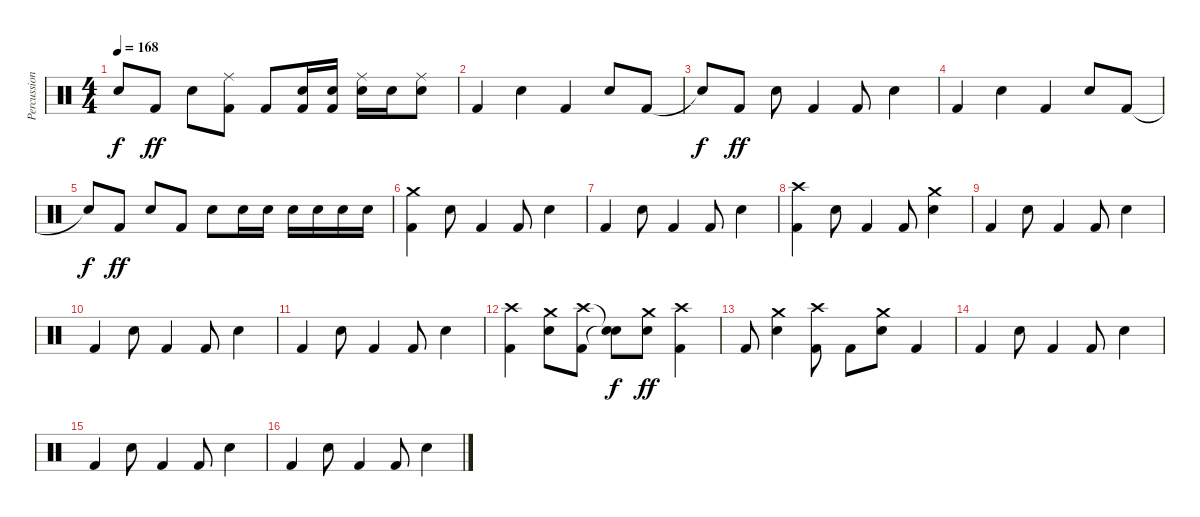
\track ("Percussions" "Percussion") {instrument percussion}
\staff {score}
\articulation defaults
\ts (4 4)
\tempo 168
\clef neutral
\ks c "Snare (hit)"{t}.8{dy f} "Kick (hit) 2".8{dy ff} "Snare (hit) 2".8
("Kick (hit) 2" "Ride (middle)").8 "Kick (hit) 2".8 ("Kick (hit) 2" "Snare (hit) 2").16 ("Kick (hit) 2" "Snare (hit) 2").16 ("Snare (hit) 2" "Ride (middle)").16 "Snare (hit) 2".16 ("Snare (hit) 2" "Ride (middle)").8 |
"Kick (hit) 2".4 "Snare (hit) 2".4 "Kick (hit) 2".4 "Snare (hit) 2".8 "Kick (hit) 2".8 |
"Snare (hit)"{t}.8{dy f} "Kick (hit) 2".8{dy ff} "Snare (hit) 2".8 "Kick (hit) 2".4 "Kick (hit) 2".8 "Snare (hit) 2".4 |
"Kick (hit) 2".4 "Snare (hit) 2".4 "Kick (hit) 2".4 "Snare (hit) 2".8 "Kick (hit) 2".8 |
"Snare (hit)"{t}.8{dy f} "Kick (hit) 2".8{dy ff} "Snare (hit) 2".8 "Kick (hit) 2".8 "Snare (hit) 2".8 "Snare (hit) 2".16 "Snare (hit) 2".16 "Snare (hit) 2".16 "Snare (hit) 2".16 "Snare (hit) 2".16 "Snare (hit) 2".16 |
("Kick (hit) 2" "Crash medium (hit)").4 "Snare (hit) 2".8 "Kick (hit) 2".4 "Kick (hit) 2".8 "Snare (hit) 2".4 |
"Kick (hit) 2".4 "Snare (hit) 2".8 "Kick (hit) 2".4 "Kick (hit) 2".8 "Snare (hit) 2".4 |
("Kick (hit) 2" "Crash high (hit)").4 "Snare (hit) 2".8 "Kick (hit) 2".4 "Kick (hit) 2".8 ("Snare (hit) 2" "Crash medium (hit)").4 |
"Kick (hit) 2".4 "Snare (hit) 2".8 "Kick (hit) 2".4 "Kick (hit) 2".8 "Snare (hit) 2".4 |
"Kick (hit) 2".4 "Snare (hit) 2".8 "Kick (hit) 2".4 "Kick (hit) 2".8 "Snare (hit) 2".4 |
"Kick (hit) 2".4 "Snare (hit) 2".8 "Kick (hit) 2".4 "Kick (hit) 2".8 "Snare (hit) 2".4 |
("Kick (hit) 2" "Crash high (hit)").4 ("Snare (hit) 2" "Crash medium (hit)").8 ("Kick (hit) 2" "Crash high (hit)").8 ("Snare (hit)"{t} "Snare (hit)"{t}).8{dy f} ("Snare (hit) 2" "Crash medium (hit)").8{dy ff} ("Kick (hit) 2" "Crash high (hit)").4 |
"Kick (hit) 2".8 ("Snare (hit) 2" "Crash medium (hit)").4 ("Kick (hit) 2" "Crash high (hit)").8 "Kick (hit) 2".8 ("Snare (hit) 2" "Crash medium (hit)").8 "Kick (hit) 2".4 |
"Kick (hit) 2".4 "Snare (hit) 2".8 "Kick (hit) 2".4 "Kick (hit) 2".8 "Snare (hit) 2".4 |
"Kick (hit) 2".4 "Snare (hit) 2".8 "Kick (hit) 2".4 "Kick (hit) 2".8 "Snare (hit) 2".4 |
"Kick (hit) 2".4 "Snare (hit) 2".8 "Kick (hit) 2".4 "Kick (hit) 2".8 "Snare (hit) 2".4
